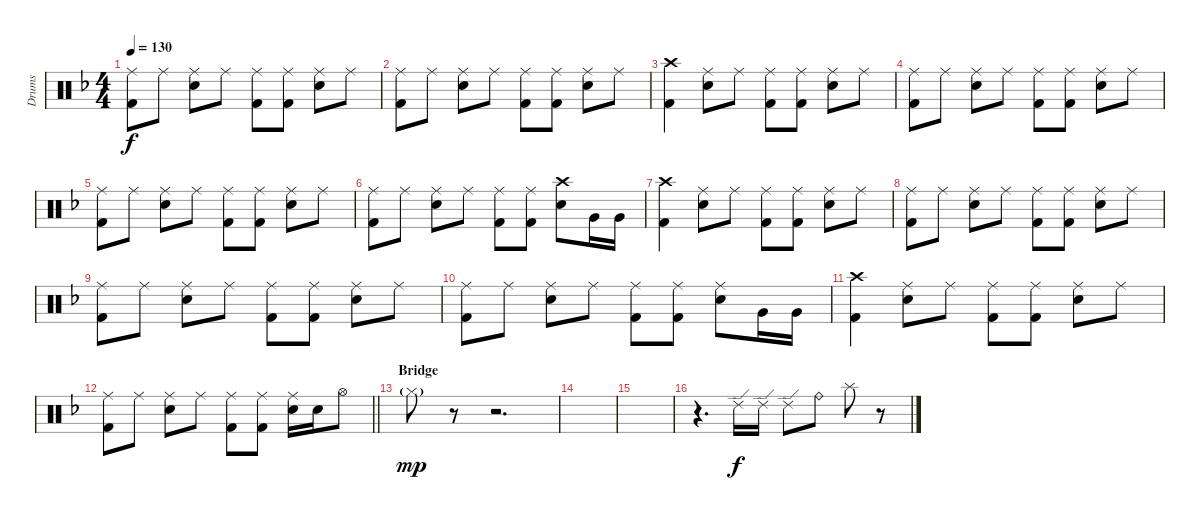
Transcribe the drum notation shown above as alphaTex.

\track ("Drums" "Drums") {instrument percussion}
\staff {score}
\articulation defaults
\ts (4 4)
\tempo 130
\clef neutral
\ks f
("Ride (middle)" "Kick (hit) 2").8{dy f} "Ride (middle)".8 ("Ride (middle)" "Snare (hit) 2").8 "Ride (middle)".8 ("Ride (middle)" "Kick (hit) 2").8 ("Ride (middle)" "Kick (hit) 2").8 ("Ride (middle)" "Snare (hit) 2").8 "Ride (middle)".8 |
("Ride (middle)" "Kick (hit) 2").8 "Ride (middle)".8 ("Ride (middle)" "Snare (hit) 2").8 "Ride (middle)".8 ("Ride (middle)" "Kick (hit) 2").8 ("Ride (middle)" "Kick (hit) 2").8 ("Ride (middle)" "Snare (hit) 2").8 "Ride (middle)".8 |
("Crash high (hit)" "Kick (hit) 2").4 ("Ride (middle)" "Snare (hit) 2").8 "Ride (middle)".8 ("Ride (middle)" "Kick (hit) 2").8 ("Ride (middle)" "Kick (hit) 2").8 ("Ride (middle)" "Snare (hit) 2").8 "Ride (middle)".8 |
("Ride (middle)" "Kick (hit) 2").8 "Ride (middle)".8 ("Ride (middle)" "Snare (hit) 2").8 "Ride (middle)".8 ("Ride (middle)" "Kick (hit) 2").8 ("Ride (middle)" "Kick (hit) 2").8 ("Ride (middle)" "Snare (hit) 2").8 "Ride (middle)".8 |
("Ride (middle)" "Kick (hit) 2").8 "Ride (middle)".8 ("Ride (middle)" "Snare (hit) 2").8 "Ride (middle)".8 ("Ride (middle)" "Kick (hit) 2").8 ("Ride (middle)" "Kick (hit) 2").8 ("Ride (middle)" "Snare (hit) 2").8 "Ride (middle)".8 |
("Ride (middle)" "Kick (hit) 2").8 "Ride (middle)".8 ("Ride (middle)" "Snare (hit) 2").8 "Ride (middle)".8 ("Ride (middle)" "Kick (hit) 2").8 ("Ride (middle)" "Kick (hit) 2").8 ("Crash high (hit)" "Snare (hit) 2").8 "Very Low Tom (hit)".16 "Very Low Tom (hit)".16 |
("Crash high (hit)" "Kick (hit) 2").4 ("Ride (middle)" "Snare (hit) 2").8 "Ride (middle)".8 ("Ride (middle)" "Kick (hit) 2").8 ("Ride (middle)" "Kick (hit) 2").8 ("Ride (middle)" "Snare (hit) 2").8 "Ride (middle)".8 |
("Ride (middle)" "Kick (hit) 2").8 "Ride (middle)".8 ("Ride (middle)" "Snare (hit) 2").8 "Ride (middle)".8 ("Ride (middle)" "Kick (hit) 2").8 ("Ride (middle)" "Kick (hit) 2").8 ("Ride (middle)" "Snare (hit) 2").8 "Ride (middle)".8 |
("Ride (middle)" "Kick (hit) 2").8 "Ride (middle)".8 ("Ride (middle)" "Snare (hit) 2").8 "Ride (middle)".8 ("Ride (middle)" "Kick (hit) 2").8 ("Ride (middle)" "Kick (hit) 2").8 ("Ride (middle)" "Snare (hit) 2").8 "Ride (middle)".8 |
("Ride (middle)" "Kick (hit) 2").8 "Ride (middle)".8 ("Ride (middle)" "Snare (hit) 2").8 "Ride (middle)".8 ("Ride (middle)" "Kick (hit) 2").8 ("Ride (middle)" "Kick (hit) 2").8 ("Ride (middle)" "Snare (hit) 2").8 "Very Low Tom (hit)".16 "Very Low Tom (hit)".16 |
("Crash high (hit)" "Kick (hit) 2").4 ("Ride (middle)" "Snare (hit) 2").8 "Ride (middle)".8 ("Ride (middle)" "Kick (hit) 2").8 ("Ride (middle)" "Kick (hit) 2").8 ("Ride (middle)" "Snare (hit) 2").8 "Ride (middle)".8 |
\barLineRight lightlight
("Ride (middle)" "Kick (hit) 2").8 "Ride (middle)".8 ("Ride (middle)" "Snare (hit) 2").8 "Ride (middle)".8 ("Ride (middle)" "Kick (hit) 2").8 ("Ride (middle)" "Kick (hit) 2").8 ("Ride (middle)" "Snare (hit) 2").16 "Snare (hit) 2".16 "Hi-Hat (open)".8 |
\section ("" "Bridge")
"Hi-Hat (closed)"{g}.8{dy mp} r.8 r.2{d} |
|
|
r.4{d} "Ride (edge) 2".16{dy f} "Ride (edge) 2".16 "Ride (edge) 2".8 "Ride (bell)".8 "Splash (hit)".8 r.8
